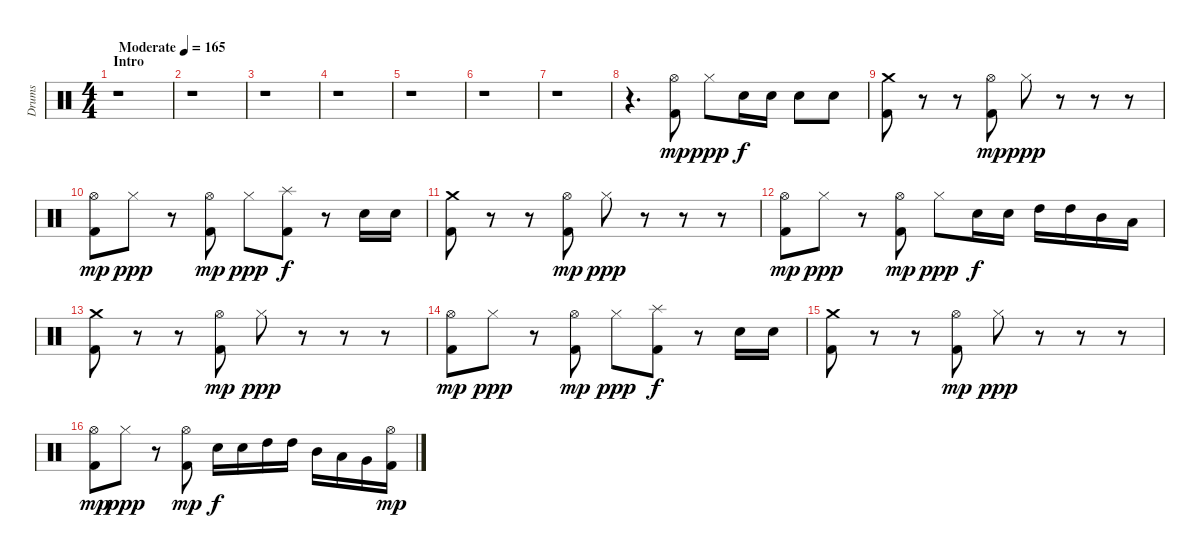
\track ("Drums" "Drums") {instrument percussion}
\staff {score}
\articulation defaults
\ts (4 4)
\section ("" "Intro")
\tempo (165 "Moderate")
\clef neutral
\ks c
r.1{dy mp} |
r.1 |
r.1 |
r.1 |
r.1 |
r.1 |
r.1 |
r.4{d} ("Hi-Hat (open)" "Kick (hit) 2").8 "Hi-Hat (closed)".8{dy ppp} "Snare (hit) 2".16{dy f} "Snare (hit) 2".16 "Snare (hit) 2".8 "Snare (hit) 2".8 |
("Crash medium (hit)" "Kick (hit) 2").8 r.8 r.8 ("Hi-Hat (open)" "Kick (hit) 2").8{dy mp} "Hi-Hat (closed)".8{dy ppp} r.8 r.8 r.8 |
("Hi-Hat (open)" "Kick (hit) 2").8{dy mp} "Hi-Hat (closed)".8{dy ppp} r.8 ("Hi-Hat (open)" "Kick (hit) 2").8{dy mp} "Hi-Hat (closed)".8{dy ppp} ("Splash (hit)" "Kick (hit) 2").8{dy f} r.8 "Snare (hit) 2".16 "Snare (hit) 2".16 |
("Crash medium (hit)" "Kick (hit) 2").8 r.8 r.8 ("Hi-Hat (open)" "Kick (hit) 2").8{dy mp} "Hi-Hat (closed)".8{dy ppp} r.8 r.8 r.8 |
("Hi-Hat (open)" "Kick (hit) 2").8{dy mp} "Hi-Hat (closed)".8{dy ppp} r.8 ("Hi-Hat (open)" "Kick (hit) 2").8{dy mp} "Hi-Hat (closed)".8{dy ppp} "Snare (hit) 2".16{dy f} "Snare (hit) 2".16 "High Tom (hit)".16 "High Tom (hit)".16 "Mid Tom (hit)".16 "Low Tom (hit)".16 |
("Crash medium (hit)" "Kick (hit) 2").8 r.8 r.8 ("Hi-Hat (open)" "Kick (hit) 2").8{dy mp} "Hi-Hat (closed)".8{dy ppp} r.8 r.8 r.8 |
("Hi-Hat (open)" "Kick (hit) 2").8{dy mp} "Hi-Hat (closed)".8{dy ppp} r.8 ("Hi-Hat (open)" "Kick (hit) 2").8{dy mp} "Hi-Hat (closed)".8{dy ppp} ("Splash (hit)" "Kick (hit) 2").8{dy f} r.8 "Snare (hit) 2".16 "Snare (hit) 2".16 |
("Crash medium (hit)" "Kick (hit) 2").8 r.8 r.8 ("Hi-Hat (open)" "Kick (hit) 2").8{dy mp} "Hi-Hat (closed)".8{dy ppp} r.8 r.8 r.8 |
("Hi-Hat (open)" "Kick (hit) 2").8{dy mp} "Hi-Hat (closed)".8{dy ppp} r.8 ("Hi-Hat (open)" "Kick (hit) 2").8{dy mp} "Snare (hit) 2".16{dy f} "Snare (hit) 2".16 "High Tom (hit)".16 "High Tom (hit)".16 "Mid Tom (hit)".16 "Low Tom (hit)".16 "Very Low Tom (hit)".16 ("Hi-Hat (open)" "Kick (hit) 2").16{dy mp}
